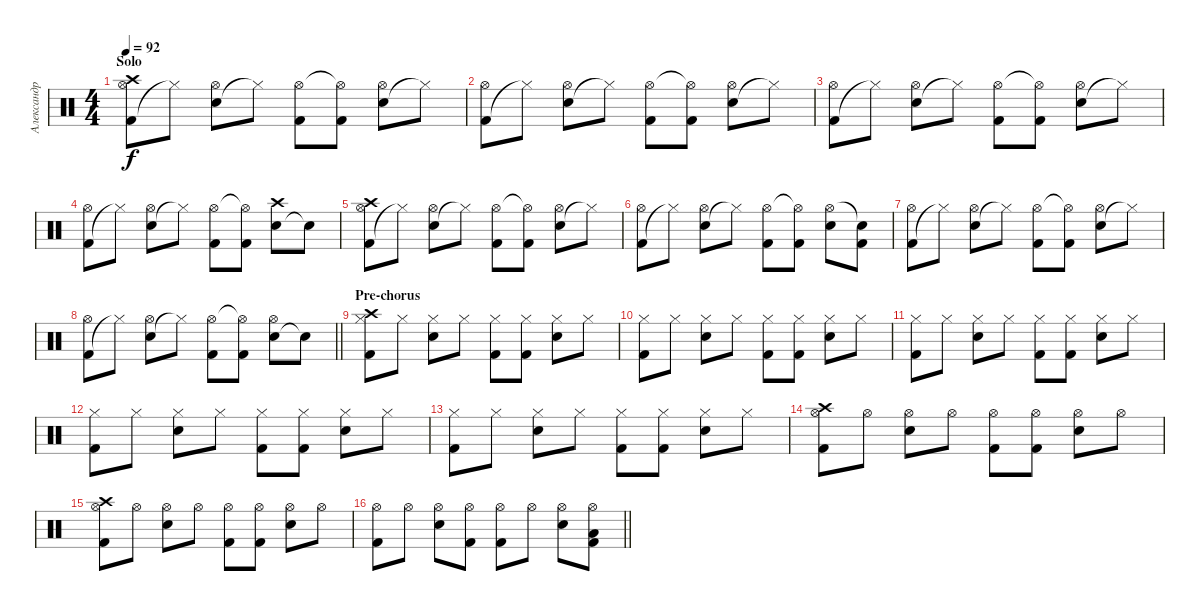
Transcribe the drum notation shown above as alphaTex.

\track ("Александр Барзилович" "Александр ") {instrument percussion}
\staff {score}
\articulation defaults
\ts (4 4)
\section ("" "Solo")
\tempo 92
\clef neutral
\ks c
("Kick (hit) 2" "Hi-Hat (open)" "Crash high (hit)").8{dy f} "Hi-Hat (closed)"{t}.8 ("Electric Snare (hit)" "Hi-Hat (open)").8 "Hi-Hat (closed)"{t}.8 ("Kick (hit) 2" "Hi-Hat (open)").8 ("Kick (hit) 2" "Hi-Hat (open)"{t}).8 ("Electric Snare (hit)" "Hi-Hat (open)").8 "Hi-Hat (closed)"{t}.8 |
("Kick (hit) 2" "Hi-Hat (open)").8 "Hi-Hat (closed)"{t}.8 ("Electric Snare (hit)" "Hi-Hat (open)").8 "Hi-Hat (closed)"{t}.8 ("Kick (hit) 2" "Hi-Hat (open)").8 ("Kick (hit) 2" "Hi-Hat (open)"{t}).8 ("Electric Snare (hit)" "Hi-Hat (open)").8 "Hi-Hat (closed)"{t}.8 |
("Kick (hit) 2" "Hi-Hat (open)").8 "Hi-Hat (closed)"{t}.8 ("Electric Snare (hit)" "Hi-Hat (open)").8 "Hi-Hat (closed)"{t}.8 ("Kick (hit) 2" "Hi-Hat (open)").8 ("Kick (hit) 2" "Hi-Hat (open)"{t}).8 ("Electric Snare (hit)" "Hi-Hat (open)").8 "Hi-Hat (closed)"{t}.8 |
("Kick (hit) 2" "Hi-Hat (open)").8 "Hi-Hat (closed)"{t}.8 ("Electric Snare (hit)" "Hi-Hat (open)").8 "Hi-Hat (closed)"{t}.8 ("Kick (hit) 2" "Hi-Hat (open)").8 ("Kick (hit) 2" "Hi-Hat (open)"{t}).8 ("Electric Snare (hit)" "Crash high (hit)").8 "Snare (hit)"{t}.8 |
("Kick (hit) 2" "Hi-Hat (open)" "Crash high (hit)").8 "Hi-Hat (closed)"{t}.8 ("Electric Snare (hit)" "Hi-Hat (open)").8 "Hi-Hat (closed)"{t}.8 ("Kick (hit) 2" "Hi-Hat (open)").8 ("Kick (hit) 2" "Hi-Hat (open)"{t}).8 ("Electric Snare (hit)" "Hi-Hat (open)").8 "Hi-Hat (closed)"{t}.8 |
("Kick (hit) 2" "Hi-Hat (open)").8 "Hi-Hat (closed)"{t}.8 ("Electric Snare (hit)" "Hi-Hat (open)").8 "Hi-Hat (closed)"{t}.8 ("Kick (hit) 2" "Hi-Hat (open)").8 ("Kick (hit) 2" "Hi-Hat (open)"{t}).8 ("Electric Snare (hit)" "Hi-Hat (open)").8 ("Kick (hit) 2" "Snare (hit)"{t}).8 |
("Kick (hit) 2" "Hi-Hat (open)").8 "Hi-Hat (closed)"{t}.8 ("Electric Snare (hit)" "Hi-Hat (open)").8 "Hi-Hat (closed)"{t}.8 ("Kick (hit) 2" "Hi-Hat (open)").8 ("Kick (hit) 2" "Hi-Hat (open)"{t}).8 ("Electric Snare (hit)" "Hi-Hat (open)").8 "Hi-Hat (closed)"{t}.8 |
\barLineRight lightlight
("Kick (hit) 2" "Hi-Hat (open)").8 "Hi-Hat (closed)"{t}.8 ("Electric Snare (hit)" "Hi-Hat (open)").8 "Hi-Hat (closed)"{t}.8 ("Kick (hit) 2" "Hi-Hat (open)").8 ("Kick (hit) 2" "Hi-Hat (open)"{t}).8 ("Electric Snare (hit)" "Hi-Hat (open)").8 "Snare (hit)"{t}.8 |
\section ("" "Pre-chorus")
("Kick (hit) 2" "Hi-Hat (closed)" "Crash high (hit)").8 "Hi-Hat (closed)".8 ("Electric Snare (hit)" "Hi-Hat (closed)").8 "Hi-Hat (closed)".8 ("Kick (hit) 2" "Hi-Hat (closed)").8 ("Kick (hit) 2" "Hi-Hat (closed)").8 ("Electric Snare (hit)" "Hi-Hat (closed)").8 "Hi-Hat (closed)".8 |
("Kick (hit) 2" "Hi-Hat (closed)").8 "Hi-Hat (closed)".8 ("Electric Snare (hit)" "Hi-Hat (closed)").8 "Hi-Hat (closed)".8 ("Kick (hit) 2" "Hi-Hat (closed)").8 ("Kick (hit) 2" "Hi-Hat (closed)").8 ("Electric Snare (hit)" "Hi-Hat (closed)").8 "Hi-Hat (closed)".8 |
("Kick (hit) 2" "Hi-Hat (closed)").8 "Hi-Hat (closed)".8 ("Electric Snare (hit)" "Hi-Hat (closed)").8 "Hi-Hat (closed)".8 ("Kick (hit) 2" "Hi-Hat (closed)").8 ("Kick (hit) 2" "Hi-Hat (closed)").8 ("Electric Snare (hit)" "Hi-Hat (closed)").8 "Hi-Hat (closed)".8 |
("Kick (hit) 2" "Hi-Hat (closed)").8 "Hi-Hat (closed)".8 ("Electric Snare (hit)" "Hi-Hat (closed)").8 "Hi-Hat (closed)".8 ("Kick (hit) 2" "Hi-Hat (closed)").8 ("Kick (hit) 2" "Hi-Hat (closed)").8 ("Electric Snare (hit)" "Hi-Hat (closed)").8 "Hi-Hat (closed)".8 |
("Kick (hit) 2" "Hi-Hat (closed)").8 "Hi-Hat (closed)".8 ("Electric Snare (hit)" "Hi-Hat (closed)").8 "Hi-Hat (closed)".8 ("Kick (hit) 2" "Hi-Hat (closed)").8 ("Kick (hit) 2" "Hi-Hat (closed)").8 ("Electric Snare (hit)" "Hi-Hat (closed)").8 "Hi-Hat (closed)".8 |
("Kick (hit) 2" "Hi-Hat (open)" "Crash high (hit)").8 "Hi-Hat (open)".8 ("Electric Snare (hit)" "Hi-Hat (open)").8 "Hi-Hat (open)".8 ("Kick (hit) 2" "Hi-Hat (open)").8 ("Kick (hit) 2" "Hi-Hat (open)").8 ("Electric Snare (hit)" "Hi-Hat (open)").8 "Hi-Hat (open)".8 |
("Kick (hit) 2" "Hi-Hat (open)" "Crash high (hit)").8 "Hi-Hat (open)".8 ("Electric Snare (hit)" "Hi-Hat (open)").8 "Hi-Hat (open)".8 ("Kick (hit) 2" "Hi-Hat (open)").8 ("Kick (hit) 2" "Hi-Hat (open)").8 ("Electric Snare (hit)" "Hi-Hat (open)").8 "Hi-Hat (open)".8 |
\barLineRight lightlight
("Kick (hit) 2" "Hi-Hat (open)").8 "Hi-Hat (open)".8 ("Electric Snare (hit)" "Hi-Hat (open)").8 ("Kick (hit) 2" "Hi-Hat (open)").8 ("Kick (hit) 2" "Hi-Hat (open)").8 "Hi-Hat (open)".8 ("Electric Snare (hit)" "Hi-Hat (open)").8 ("Kick (hit) 2" "Hi-Hat (open)" "Low Tom (hit)").8
